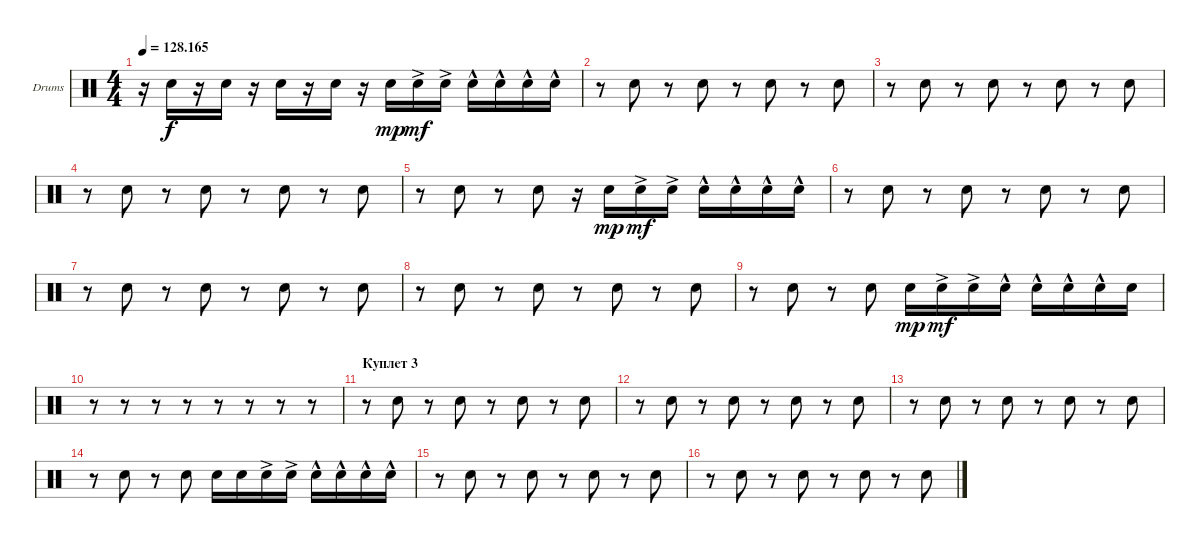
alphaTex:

\defaultSystemsLayout 4
\bracketExtendMode groupsimilarinstruments
\firstSystemTrackNameOrientation horizontal
\otherSystemsTrackNameOrientation horizontal
\track ("Drumkit" "Drums") {instrument percussion}
\staff {score}
\articulation defaults
\ts (4 4)
\tempo
128.165
\accidentals auto
\clef neutral
\ottava regular
\simile none
\ks c
r.16{dy f} "Snare (hit) 2".16 r.16 "Snare (hit) 2".16 r.16 "Snare (hit) 2".16 r.16 "Snare (hit) 2".16 r.16 "Snare (hit) 2".16{dy mp} "Snare (hit) 2"{ac}.16{dy mf} "Snare (hit) 2"{ac}.16 "Snare (hit) 2"{hac}.16 "Snare (hit) 2"{hac}.16 "Snare (hit) 2"{hac}.16 "Snare (hit) 2"{hac}.16 |
r.8 "Snare (hit) 2".8 r.8 "Snare (hit) 2".8 r.8 "Snare (hit) 2".8 r.8 "Snare (hit) 2".8 |
r.8 "Snare (hit) 2".8 r.8 "Snare (hit) 2".8 r.8 "Snare (hit) 2".8 r.8 "Snare (hit) 2".8 |
r.8 "Snare (hit) 2".8 r.8 "Snare (hit) 2".8 r.8 "Snare (hit) 2".8 r.8 "Snare (hit) 2".8 |
r.8 "Snare (hit) 2".8 r.8 "Snare (hit) 2".8 r.16 "Snare (hit) 2".16{dy mp} "Snare (hit) 2"{ac}.16{dy mf} "Snare (hit) 2"{ac}.16 "Snare (hit) 2"{hac}.16 "Snare (hit) 2"{hac}.16 "Snare (hit) 2"{hac}.16 "Snare (hit) 2"{hac}.16 |
r.8 "Snare (hit) 2".8 r.8 "Snare (hit) 2".8 r.8 "Snare (hit) 2".8 r.8 "Snare (hit) 2".8 |
r.8 "Snare (hit) 2".8 r.8 "Snare (hit) 2".8 r.8 "Snare (hit) 2".8 r.8 "Snare (hit) 2".8 |
r.8 "Snare (hit) 2".8 r.8 "Snare (hit) 2".8 r.8 "Snare (hit) 2".8 r.8 "Snare (hit) 2".8 |
r.8 "Snare (hit) 2".8 r.8 "Snare (hit) 2".8 "Snare (hit) 2".16{dy mp} "Snare (hit) 2"{ac}.16{dy mf} "Snare (hit) 2"{ac}.16 "Snare (hit) 2"{hac}.16 "Snare (hit) 2"{hac}.16 "Snare (hit) 2"{hac}.16 "Snare (hit) 2"{hac}.16 "Snare (hit) 2".16 |
r.8 r.8 r.8 r.8 r.8 r.8 r.8 r.8 |
\section ("" "Куплет 3")
r.8 "Snare (hit) 2".8 r.8 "Snare (hit) 2".8 r.8 "Snare (hit) 2".8 r.8 "Snare (hit) 2".8 |
r.8 "Snare (hit) 2".8 r.8 "Snare (hit) 2".8 r.8 "Snare (hit) 2".8 r.8 "Snare (hit) 2".8 |
r.8 "Snare (hit) 2".8 r.8 "Snare (hit) 2".8 r.8 "Snare (hit) 2".8 r.8 "Snare (hit) 2".8 |
r.8 "Snare (hit) 2".8 r.8 "Snare (hit) 2".8 "Snare (hit) 2".16 "Snare (hit) 2".16 "Snare (hit) 2"{ac}.16 "Snare (hit) 2"{ac}.16 "Snare (hit) 2"{hac}.16 "Snare (hit) 2"{hac}.16 "Snare (hit) 2"{hac}.16 "Snare (hit) 2"{hac}.16 |
r.8 "Snare (hit) 2".8 r.8 "Snare (hit) 2".8 r.8 "Snare (hit) 2".8 r.8 "Snare (hit) 2".8 |
r.8 "Snare (hit) 2".8 r.8 "Snare (hit) 2".8 r.8 "Snare (hit) 2".8 r.8 "Snare (hit) 2".8
